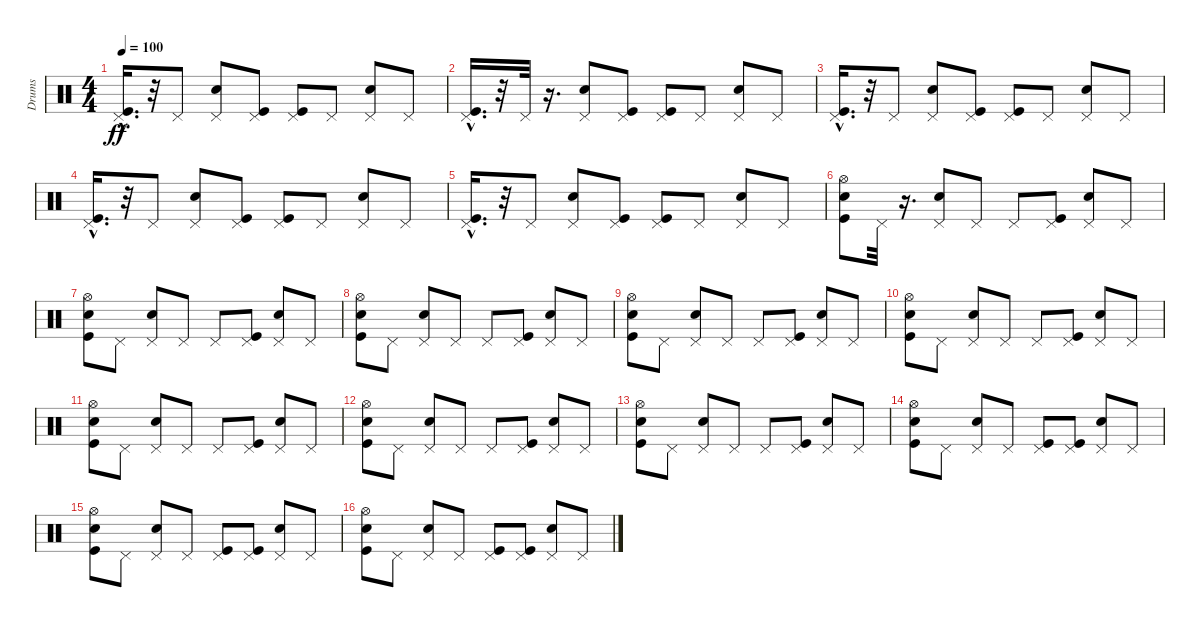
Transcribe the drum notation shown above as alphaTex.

\track ("Drums" "Drums") {instrument percussion}
\staff {score}
\articulation defaults
\ts (4 4)
\tempo 100
\clef neutral
\ks c
("Pedal Hi-Hat (hit)" "Kick (hit)"{hac}).16{d dy ff} r.32 "Pedal Hi-Hat (hit)".8 ("Electric Snare (hit)" "Pedal Hi-Hat (hit)").8 ("Kick (hit)" "Pedal Hi-Hat (hit)").8 ("Kick (hit)" "Pedal Hi-Hat (hit)").8 "Pedal Hi-Hat (hit)".8 ("Electric Snare (hit)" "Pedal Hi-Hat (hit)").8 "Pedal Hi-Hat (hit)".8 |
("Pedal Hi-Hat (hit)" "Kick (hit)"{hac}).16{d} r.32 "Pedal Hi-Hat (hit)".32 r.16{d} ("Electric Snare (hit)" "Pedal Hi-Hat (hit)").8 ("Kick (hit)" "Pedal Hi-Hat (hit)").8 ("Kick (hit)" "Pedal Hi-Hat (hit)").8 "Pedal Hi-Hat (hit)".8 ("Electric Snare (hit)" "Pedal Hi-Hat (hit)").8 "Pedal Hi-Hat (hit)".8 |
("Pedal Hi-Hat (hit)" "Kick (hit)"{hac}).16{d} r.32 "Pedal Hi-Hat (hit)".8 ("Electric Snare (hit)" "Pedal Hi-Hat (hit)").8 ("Kick (hit)" "Pedal Hi-Hat (hit)").8 ("Kick (hit)" "Pedal Hi-Hat (hit)").8 "Pedal Hi-Hat (hit)".8 ("Electric Snare (hit)" "Pedal Hi-Hat (hit)").8 "Pedal Hi-Hat (hit)".8 |
("Pedal Hi-Hat (hit)" "Kick (hit)"{hac}).16{d} r.32 "Pedal Hi-Hat (hit)".8 ("Electric Snare (hit)" "Pedal Hi-Hat (hit)").8 ("Kick (hit)" "Pedal Hi-Hat (hit)").8 ("Kick (hit)" "Pedal Hi-Hat (hit)").8 "Pedal Hi-Hat (hit)".8 ("Electric Snare (hit)" "Pedal Hi-Hat (hit)").8 "Pedal Hi-Hat (hit)".8 |
("Pedal Hi-Hat (hit)" "Kick (hit)"{hac}).16{d} r.32 "Pedal Hi-Hat (hit)".8 ("Electric Snare (hit)" "Pedal Hi-Hat (hit)").8 ("Kick (hit)" "Pedal Hi-Hat (hit)").8 ("Kick (hit)" "Pedal Hi-Hat (hit)").8 "Pedal Hi-Hat (hit)".8 ("Electric Snare (hit)" "Pedal Hi-Hat (hit)").8 "Pedal Hi-Hat (hit)".8 |
("Kick (hit)" "Electric Snare (hit)" "Hi-Hat (open)").8 "Pedal Hi-Hat (hit)".32 r.16{d} ("Electric Snare (hit)" "Pedal Hi-Hat (hit)").8 "Pedal Hi-Hat (hit)".8 "Pedal Hi-Hat (hit)".8 ("Kick (hit)" "Pedal Hi-Hat (hit)").8 ("Electric Snare (hit)" "Pedal Hi-Hat (hit)").8 "Pedal Hi-Hat (hit)".8 |
("Kick (hit)" "Electric Snare (hit)" "Hi-Hat (open)").8 "Pedal Hi-Hat (hit)".8 ("Electric Snare (hit)" "Pedal Hi-Hat (hit)").8 "Pedal Hi-Hat (hit)".8 "Pedal Hi-Hat (hit)".8 ("Kick (hit)" "Pedal Hi-Hat (hit)").8 ("Electric Snare (hit)" "Pedal Hi-Hat (hit)").8 "Pedal Hi-Hat (hit)".8 |
("Kick (hit)" "Electric Snare (hit)" "Hi-Hat (open)").8 "Pedal Hi-Hat (hit)".8 ("Electric Snare (hit)" "Pedal Hi-Hat (hit)").8 "Pedal Hi-Hat (hit)".8 "Pedal Hi-Hat (hit)".8 ("Kick (hit)" "Pedal Hi-Hat (hit)").8 ("Electric Snare (hit)" "Pedal Hi-Hat (hit)").8 "Pedal Hi-Hat (hit)".8 |
("Kick (hit)" "Electric Snare (hit)" "Hi-Hat (open)").8 "Pedal Hi-Hat (hit)".8 ("Electric Snare (hit)" "Pedal Hi-Hat (hit)").8 "Pedal Hi-Hat (hit)".8 "Pedal Hi-Hat (hit)".8 ("Kick (hit)" "Pedal Hi-Hat (hit)").8 ("Electric Snare (hit)" "Pedal Hi-Hat (hit)").8 "Pedal Hi-Hat (hit)".8 |
("Kick (hit)" "Electric Snare (hit)" "Hi-Hat (open)").8 "Pedal Hi-Hat (hit)".8 ("Electric Snare (hit)" "Pedal Hi-Hat (hit)").8 "Pedal Hi-Hat (hit)".8 "Pedal Hi-Hat (hit)".8 ("Kick (hit)" "Pedal Hi-Hat (hit)").8 ("Electric Snare (hit)" "Pedal Hi-Hat (hit)").8 "Pedal Hi-Hat (hit)".8 |
("Kick (hit)" "Electric Snare (hit)" "Hi-Hat (open)").8 "Pedal Hi-Hat (hit)".8 ("Electric Snare (hit)" "Pedal Hi-Hat (hit)").8 "Pedal Hi-Hat (hit)".8 "Pedal Hi-Hat (hit)".8 ("Kick (hit)" "Pedal Hi-Hat (hit)").8 ("Electric Snare (hit)" "Pedal Hi-Hat (hit)").8 "Pedal Hi-Hat (hit)".8 |
("Kick (hit)" "Electric Snare (hit)" "Hi-Hat (open)").8 "Pedal Hi-Hat (hit)".8 ("Electric Snare (hit)" "Pedal Hi-Hat (hit)").8 "Pedal Hi-Hat (hit)".8 "Pedal Hi-Hat (hit)".8 ("Kick (hit)" "Pedal Hi-Hat (hit)").8 ("Electric Snare (hit)" "Pedal Hi-Hat (hit)").8 "Pedal Hi-Hat (hit)".8 |
("Kick (hit)" "Electric Snare (hit)" "Hi-Hat (open)").8 "Pedal Hi-Hat (hit)".8 ("Electric Snare (hit)" "Pedal Hi-Hat (hit)").8 "Pedal Hi-Hat (hit)".8 "Pedal Hi-Hat (hit)".8 ("Kick (hit)" "Pedal Hi-Hat (hit)").8 ("Electric Snare (hit)" "Pedal Hi-Hat (hit)").8 "Pedal Hi-Hat (hit)".8 |
("Kick (hit)" "Electric Snare (hit)" "Hi-Hat (open)").8 "Pedal Hi-Hat (hit)".8 ("Electric Snare (hit)" "Pedal Hi-Hat (hit)").8 "Pedal Hi-Hat (hit)".8 ("Kick (hit)" "Pedal Hi-Hat (hit)").8 ("Kick (hit)" "Pedal Hi-Hat (hit)").8 ("Electric Snare (hit)" "Pedal Hi-Hat (hit)").8 "Pedal Hi-Hat (hit)".8 |
("Kick (hit)" "Electric Snare (hit)" "Hi-Hat (open)").8 "Pedal Hi-Hat (hit)".8 ("Electric Snare (hit)" "Pedal Hi-Hat (hit)").8 "Pedal Hi-Hat (hit)".8 ("Kick (hit)" "Pedal Hi-Hat (hit)").8 ("Kick (hit)" "Pedal Hi-Hat (hit)").8 ("Electric Snare (hit)" "Pedal Hi-Hat (hit)").8 "Pedal Hi-Hat (hit)".8 |
("Kick (hit)" "Electric Snare (hit)" "Hi-Hat (open)").8 "Pedal Hi-Hat (hit)".8 ("Electric Snare (hit)" "Pedal Hi-Hat (hit)").8 "Pedal Hi-Hat (hit)".8 ("Kick (hit)" "Pedal Hi-Hat (hit)").8 ("Kick (hit)" "Pedal Hi-Hat (hit)").8 ("Electric Snare (hit)" "Pedal Hi-Hat (hit)").8 "Pedal Hi-Hat (hit)".8
